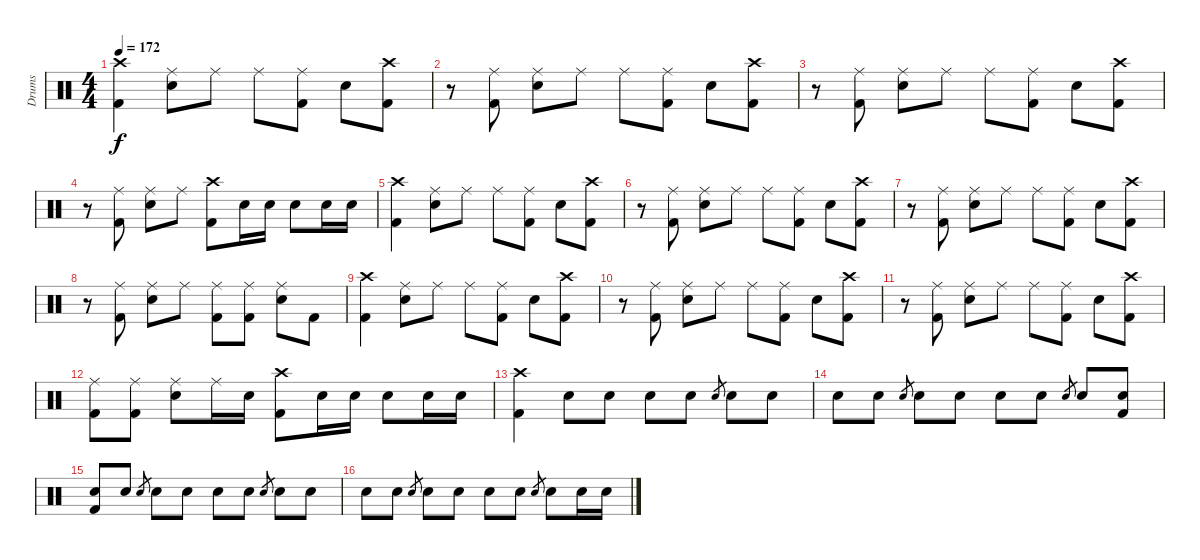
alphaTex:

\track ("Drums" "Drums") {instrument percussion}
\staff {score}
\articulation defaults
\ts (4 4)
\tempo 172
\clef neutral
\ks c
("Crash high (hit)" "Kick (hit) 2").4{dy f} ("Ride (middle)" "Electric Snare (hit)").8 "Ride (middle)".8 "Ride (middle)".8 ("Ride (middle)" "Kick (hit) 2").8 "Electric Snare (hit)".8 ("Crash high (hit)" "Kick (hit) 2").8 |
r.8 ("Ride (middle)" "Kick (hit) 2").8 ("Ride (middle)" "Electric Snare (hit)").8 "Ride (middle)".8 "Ride (middle)".8 ("Ride (middle)" "Kick (hit) 2").8 "Electric Snare (hit)".8 ("Crash high (hit)" "Kick (hit) 2").8 |
r.8 ("Ride (middle)" "Kick (hit) 2").8 ("Ride (middle)" "Electric Snare (hit)").8 "Ride (middle)".8 "Ride (middle)".8 ("Ride (middle)" "Kick (hit) 2").8 "Electric Snare (hit)".8 ("Crash high (hit)" "Kick (hit) 2").8 |
r.8 ("Ride (middle)" "Kick (hit) 2").8 ("Ride (middle)" "Electric Snare (hit)").8 "Ride (middle)".8 ("Crash high (hit)" "Kick (hit) 2").8 "Electric Snare (hit)".16 "Electric Snare (hit)".16 "Electric Snare (hit)".8 "Electric Snare (hit)".16 "Electric Snare (hit)".16 |
("Crash high (hit)" "Kick (hit) 2").4 ("Ride (middle)" "Electric Snare (hit)").8 "Ride (middle)".8 "Ride (middle)".8 ("Ride (middle)" "Kick (hit) 2").8 "Electric Snare (hit)".8 ("Crash high (hit)" "Kick (hit) 2").8 |
r.8 ("Ride (middle)" "Kick (hit) 2").8 ("Ride (middle)" "Electric Snare (hit)").8 "Ride (middle)".8 "Ride (middle)".8 ("Ride (middle)" "Kick (hit) 2").8 "Electric Snare (hit)".8 ("Crash high (hit)" "Kick (hit) 2").8 |
r.8 ("Ride (middle)" "Kick (hit) 2").8 ("Ride (middle)" "Electric Snare (hit)").8 "Ride (middle)".8 "Ride (middle)".8 ("Ride (middle)" "Kick (hit) 2").8 "Electric Snare (hit)".8 ("Crash high (hit)" "Kick (hit) 2").8 |
r.8 ("Ride (middle)" "Kick (hit) 2").8 ("Ride (middle)" "Electric Snare (hit)").8 "Ride (middle)".8 ("Ride (middle)" "Kick (hit) 2").8 ("Ride (middle)" "Kick (hit) 2").8 ("Ride (middle)" "Electric Snare (hit)").8 "Kick (hit) 2".8 |
("Crash high (hit)" "Kick (hit) 2").4 ("Ride (middle)" "Electric Snare (hit)").8 "Ride (middle)".8 "Ride (middle)".8 ("Ride (middle)" "Kick (hit) 2").8 "Electric Snare (hit)".8 ("Crash high (hit)" "Kick (hit) 2").8 |
r.8 ("Ride (middle)" "Kick (hit) 2").8 ("Ride (middle)" "Electric Snare (hit)").8 "Ride (middle)".8 "Ride (middle)".8 ("Ride (middle)" "Kick (hit) 2").8 "Electric Snare (hit)".8 ("Crash high (hit)" "Kick (hit) 2").8 |
r.8 ("Ride (middle)" "Kick (hit) 2").8 ("Ride (middle)" "Electric Snare (hit)").8 "Ride (middle)".8 "Ride (middle)".8 ("Ride (middle)" "Kick (hit) 2").8 "Electric Snare (hit)".8 ("Crash high (hit)" "Kick (hit) 2").8 |
("Ride (middle)" "Kick (hit) 2").8 ("Ride (middle)" "Kick (hit) 2").8 ("Ride (middle)" "Electric Snare (hit)").8 "Ride (middle)".16 "Electric Snare (hit)".16 ("Crash high (hit)" "Kick (hit) 2").8 "Electric Snare (hit)".16 "Electric Snare (hit)".16 "Electric Snare (hit)".8 "Electric Snare (hit)".16 "Electric Snare (hit)".16 |
("Crash high (hit)" "Kick (hit) 2").4 "Electric Snare (hit)".8 "Electric Snare (hit)".8 "Electric Snare (hit)".8 "Electric Snare (hit)".8 "Electric Snare (hit)".8{gr} "Electric Snare (hit)".8 "Electric Snare (hit)".8 |
"Electric Snare (hit)".8 "Electric Snare (hit)".8 "Electric Snare (hit)".8{gr} "Electric Snare (hit)".8 "Electric Snare (hit)".8 "Electric Snare (hit)".8 "Electric Snare (hit)".8 "Electric Snare (hit)".8{gr} "Electric Snare (hit)".8 ("Electric Snare (hit)" "Kick (hit) 2").8 |
("Electric Snare (hit)" "Kick (hit) 2").8 "Electric Snare (hit)".8 "Electric Snare (hit)".8{gr} "Electric Snare (hit)".8 "Electric Snare (hit)".8 "Electric Snare (hit)".8 "Electric Snare (hit)".8 "Electric Snare (hit)".8{gr} "Electric Snare (hit)".8 "Electric Snare (hit)".8 |
"Electric Snare (hit)".8 "Electric Snare (hit)".8 "Electric Snare (hit)".8{gr} "Electric Snare (hit)".8 "Electric Snare (hit)".8 "Electric Snare (hit)".8 "Electric Snare (hit)".8 "Electric Snare (hit)".8{gr} "Electric Snare (hit)".8 "Electric Snare (hit)".16 "Electric Snare (hit)".16
